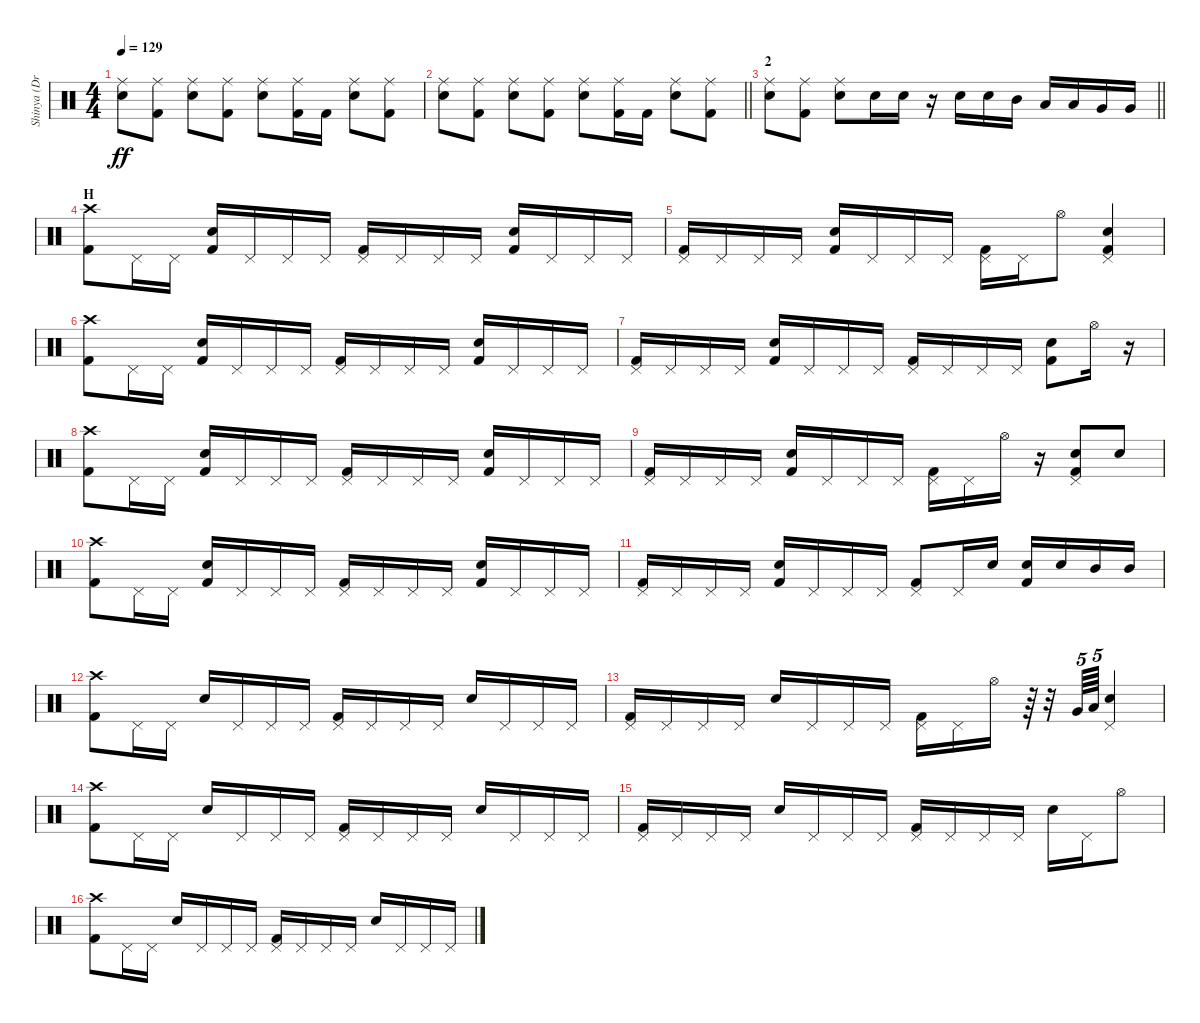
\track ("Shinya (Drums)" "Shinya (Dr") {instrument percussion}
\staff {score}
\articulation defaults
\ts (4 4)
\tempo 129
\clef neutral
\ks c
("Electric Snare (hit)" "Ride (middle)").8{dy ff} ("Ride (middle)" "Kick (hit) 2").8 ("Electric Snare (hit)" "Ride (middle)").8 ("Ride (middle)" "Kick (hit) 2").8 ("Electric Snare (hit)" "Ride (middle)").8 ("Ride (middle)" "Kick (hit) 2").16 "Kick (hit) 2".16 ("Electric Snare (hit)" "Ride (middle)").8 ("Ride (middle)" "Kick (hit) 2").8 |
\barLineRight lightlight
("Electric Snare (hit)" "Ride (middle)").8 ("Ride (middle)" "Kick (hit) 2").8 ("Electric Snare (hit)" "Ride (middle)").8 ("Ride (middle)" "Kick (hit) 2").8 ("Electric Snare (hit)" "Ride (middle)").8 ("Ride (middle)" "Kick (hit) 2").16 "Kick (hit) 2".16 ("Electric Snare (hit)" "Ride (middle)").8 ("Ride (middle)" "Kick (hit) 2").8 |
\section ("" "2")
\barLineRight lightlight
("Ride (middle)" "Electric Snare (hit)").8 ("Ride (middle)" "Kick (hit) 2").8 ("Ride (middle)" "Electric Snare (hit)").8 "Electric Snare (hit)".16 "Electric Snare (hit)".16 r.16 "Electric Snare (hit)".16 "Electric Snare (hit)".16 "Mid Tom (hit)".16 "Low Tom (hit)".16 "Low Tom (hit)".16 "Very Low Tom (hit)".16 "Very Low Tom (hit)".16 |
\section ("" "H")
("Crash high (hit)" "Kick (hit) 2").8 "Pedal Hi-Hat (hit)".16 "Pedal Hi-Hat (hit)".16 ("Electric Snare (hit)" "Kick (hit) 2").16 "Pedal Hi-Hat (hit)".16 "Pedal Hi-Hat (hit)".16 "Pedal Hi-Hat (hit)".16 ("Pedal Hi-Hat (hit)" "Kick (hit) 2").16 "Pedal Hi-Hat (hit)".16 "Pedal Hi-Hat (hit)".16 "Pedal Hi-Hat (hit)".16 ("Electric Snare (hit)" "Kick (hit) 2").16 "Pedal Hi-Hat (hit)".16 "Pedal Hi-Hat (hit)".16 "Pedal Hi-Hat (hit)".16 |
("Kick (hit) 2" "Pedal Hi-Hat (hit)").16 "Pedal Hi-Hat (hit)".16 "Pedal Hi-Hat (hit)".16 "Pedal Hi-Hat (hit)".16 ("Kick (hit) 2" "Electric Snare (hit)").16 "Pedal Hi-Hat (hit)".16 "Pedal Hi-Hat (hit)".16 "Pedal Hi-Hat (hit)".16 ("Kick (hit) 2" "Pedal Hi-Hat (hit)").16 "Pedal Hi-Hat (hit)".16 "Hi-Hat (open)".8 ("Kick (hit) 2" "Pedal Hi-Hat (hit)" "Electric Snare (hit)").4 |
("Crash high (hit)" "Kick (hit) 2").8 "Pedal Hi-Hat (hit)".16 "Pedal Hi-Hat (hit)".16 ("Electric Snare (hit)" "Kick (hit) 2").16 "Pedal Hi-Hat (hit)".16 "Pedal Hi-Hat (hit)".16 "Pedal Hi-Hat (hit)".16 ("Pedal Hi-Hat (hit)" "Kick (hit) 2").16 "Pedal Hi-Hat (hit)".16 "Pedal Hi-Hat (hit)".16 "Pedal Hi-Hat (hit)".16 ("Electric Snare (hit)" "Kick (hit) 2").16 "Pedal Hi-Hat (hit)".16 "Pedal Hi-Hat (hit)".16 "Pedal Hi-Hat (hit)".16 |
("Kick (hit) 2" "Pedal Hi-Hat (hit)").16 "Pedal Hi-Hat (hit)".16 "Pedal Hi-Hat (hit)".16 "Pedal Hi-Hat (hit)".16 ("Electric Snare (hit)" "Kick (hit) 2").16 "Pedal Hi-Hat (hit)".16 "Pedal Hi-Hat (hit)".16 "Pedal Hi-Hat (hit)".16 ("Pedal Hi-Hat (hit)" "Kick (hit) 2").16 "Pedal Hi-Hat (hit)".16 "Pedal Hi-Hat (hit)".16 "Pedal Hi-Hat (hit)".16 ("Electric Snare (hit)" "Kick (hit) 2").8 "Hi-Hat (open)".16 r.16 |
("Crash high (hit)" "Kick (hit) 2").8 "Pedal Hi-Hat (hit)".16 "Pedal Hi-Hat (hit)".16 ("Electric Snare (hit)" "Kick (hit) 2").16 "Pedal Hi-Hat (hit)".16 "Pedal Hi-Hat (hit)".16 "Pedal Hi-Hat (hit)".16 ("Pedal Hi-Hat (hit)" "Kick (hit) 2").16 "Pedal Hi-Hat (hit)".16 "Pedal Hi-Hat (hit)".16 "Pedal Hi-Hat (hit)".16 ("Electric Snare (hit)" "Kick (hit) 2").16 "Pedal Hi-Hat (hit)".16 "Pedal Hi-Hat (hit)".16 "Pedal Hi-Hat (hit)".16 |
("Kick (hit) 2" "Pedal Hi-Hat (hit)").16 "Pedal Hi-Hat (hit)".16 "Pedal Hi-Hat (hit)".16 "Pedal Hi-Hat (hit)".16 ("Electric Snare (hit)" "Kick (hit) 2").16 "Pedal Hi-Hat (hit)".16 "Pedal Hi-Hat (hit)".16 "Pedal Hi-Hat (hit)".16 ("Pedal Hi-Hat (hit)" "Kick (hit) 2").16 "Pedal Hi-Hat (hit)".16 "Hi-Hat (open)".16 r.16 ("Kick (hit) 2" "Electric Snare (hit)" "Pedal Hi-Hat (hit)").8 "Electric Snare (hit)".8 |
("Crash high (hit)" "Kick (hit) 2").8 "Pedal Hi-Hat (hit)".16 "Pedal Hi-Hat (hit)".16 ("Electric Snare (hit)" "Kick (hit) 2").16 "Pedal Hi-Hat (hit)".16 "Pedal Hi-Hat (hit)".16 "Pedal Hi-Hat (hit)".16 ("Pedal Hi-Hat (hit)" "Kick (hit) 2").16 "Pedal Hi-Hat (hit)".16 "Pedal Hi-Hat (hit)".16 "Pedal Hi-Hat (hit)".16 ("Electric Snare (hit)" "Kick (hit) 2").16 "Pedal Hi-Hat (hit)".16 "Pedal Hi-Hat (hit)".16 "Pedal Hi-Hat (hit)".16 |
("Kick (hit) 2" "Pedal Hi-Hat (hit)").16 "Pedal Hi-Hat (hit)".16 "Pedal Hi-Hat (hit)".16 "Pedal Hi-Hat (hit)".16 ("Kick (hit) 2" "Electric Snare (hit)").16 "Pedal Hi-Hat (hit)".16 "Pedal Hi-Hat (hit)".16 "Pedal Hi-Hat (hit)".16 ("Kick (hit) 2" "Pedal Hi-Hat (hit)").8 "Pedal Hi-Hat (hit)".16 "Electric Snare (hit)".16 ("Kick (hit) 2" "Electric Snare (hit)").16 "Electric Snare (hit)".16 "Mid Tom (hit)".16 "Mid Tom (hit)".16 |
("Crash high (hit)" "Kick (hit) 2").8 "Pedal Hi-Hat (hit)".16 "Pedal Hi-Hat (hit)".16 "Electric Snare (hit)".16 "Pedal Hi-Hat (hit)".16 "Pedal Hi-Hat (hit)".16 "Pedal Hi-Hat (hit)".16 ("Pedal Hi-Hat (hit)" "Kick (hit) 2").16 "Pedal Hi-Hat (hit)".16 "Pedal Hi-Hat (hit)".16 "Pedal Hi-Hat (hit)".16 "Electric Snare (hit)".16 "Pedal Hi-Hat (hit)".16 "Pedal Hi-Hat (hit)".16 "Pedal Hi-Hat (hit)".16 |
("Pedal Hi-Hat (hit)" "Kick (hit) 2").16 "Pedal Hi-Hat (hit)".16 "Pedal Hi-Hat (hit)".16 "Pedal Hi-Hat (hit)".16 "Electric Snare (hit)".16 "Pedal Hi-Hat (hit)".16 "Pedal Hi-Hat (hit)".16 "Pedal Hi-Hat (hit)".16 ("Kick (hit) 2" "Pedal Hi-Hat (hit)").16 "Pedal Hi-Hat (hit)".16 "Hi-Hat (open)".16 r.64 r.32 "Very Low Tom (hit)".64{tu (5 4)} "Low Floor Tom (hit)".64{tu (5 4)} ("Pedal Hi-Hat (hit)" "Electric Snare (hit)").4 |
("Crash high (hit)" "Kick (hit) 2").8 "Pedal Hi-Hat (hit)".16 "Pedal Hi-Hat (hit)".16 "Electric Snare (hit)".16 "Pedal Hi-Hat (hit)".16 "Pedal Hi-Hat (hit)".16 "Pedal Hi-Hat (hit)".16 ("Pedal Hi-Hat (hit)" "Kick (hit) 2").16 "Pedal Hi-Hat (hit)".16 "Pedal Hi-Hat (hit)".16 "Pedal Hi-Hat (hit)".16 "Electric Snare (hit)".16 "Pedal Hi-Hat (hit)".16 "Pedal Hi-Hat (hit)".16 "Pedal Hi-Hat (hit)".16 |
("Kick (hit) 2" "Pedal Hi-Hat (hit)").16 "Pedal Hi-Hat (hit)".16 "Pedal Hi-Hat (hit)".16 "Pedal Hi-Hat (hit)".16 "Electric Snare (hit)".16 "Pedal Hi-Hat (hit)".16 "Pedal Hi-Hat (hit)".16 "Pedal Hi-Hat (hit)".16 ("Pedal Hi-Hat (hit)" "Kick (hit) 2").16 "Pedal Hi-Hat (hit)".16 "Pedal Hi-Hat (hit)".16 "Pedal Hi-Hat (hit)".16 "Electric Snare (hit)".16 "Pedal Hi-Hat (hit)".16 "Hi-Hat (open)".8 |
("Crash high (hit)" "Kick (hit) 2").8 "Pedal Hi-Hat (hit)".16 "Pedal Hi-Hat (hit)".16 "Electric Snare (hit)".16 "Pedal Hi-Hat (hit)".16 "Pedal Hi-Hat (hit)".16 "Pedal Hi-Hat (hit)".16 ("Pedal Hi-Hat (hit)" "Kick (hit) 2").16 "Pedal Hi-Hat (hit)".16 "Pedal Hi-Hat (hit)".16 "Pedal Hi-Hat (hit)".16 "Electric Snare (hit)".16 "Pedal Hi-Hat (hit)".16 "Pedal Hi-Hat (hit)".16 "Pedal Hi-Hat (hit)".16
